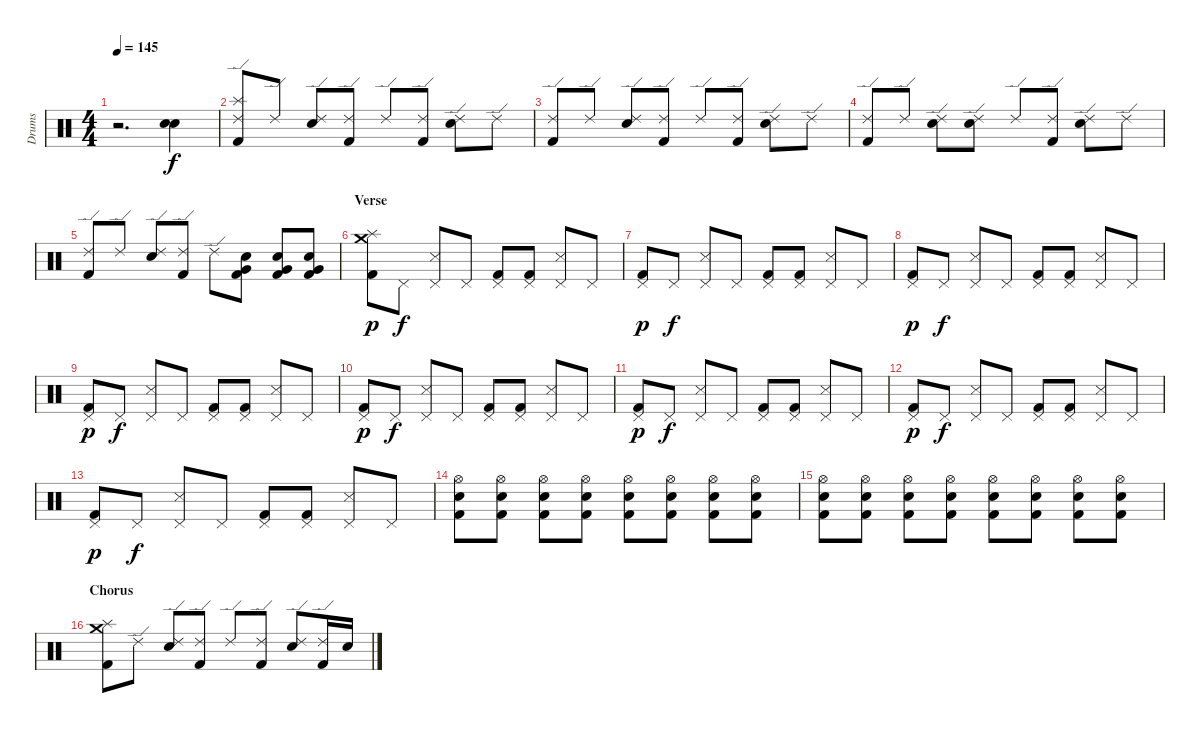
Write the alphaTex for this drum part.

\track ("Drums" "Drums") {instrument percussion}
\staff {score}
\articulation defaults
\ts (4 4)
\tempo 145
\clef neutral
\ks c
r.2{d dy f} ("Electric Snare (hit)" "Electric Snare (hit)").4{bu 240} |
("Ride (edge) 2" "Splash (hit)" "Kick (hit) 2").8 "Ride (edge) 2".8 ("Ride (edge) 2" "Electric Snare (hit)").8 ("Ride (edge) 2" "Kick (hit) 2").8 "Ride (edge) 2".8 ("Ride (edge) 2" "Kick (hit) 2").8 ("Ride (edge) 2" "Electric Snare (hit)").8 "Ride (edge) 2".8 |
("Ride (edge) 2" "Kick (hit) 2").8 "Ride (edge) 2".8 ("Ride (edge) 2" "Electric Snare (hit)").8 ("Ride (edge) 2" "Kick (hit) 2").8 "Ride (edge) 2".8 ("Ride (edge) 2" "Kick (hit) 2").8 ("Ride (edge) 2" "Electric Snare (hit)").8 "Ride (edge) 2".8 |
("Ride (edge) 2" "Kick (hit) 2").8 "Ride (edge) 2".8 ("Ride (edge) 2" "Electric Snare (hit)").8 ("Ride (edge) 2" "Electric Snare (hit)").8 "Ride (edge) 2".8 ("Ride (edge) 2" "Kick (hit) 2").8 ("Ride (edge) 2" "Electric Snare (hit)").8 "Ride (edge) 2".8 |
("Ride (edge) 2" "Kick (hit) 2").8 "Ride (edge) 2".8 ("Ride (edge) 2" "Electric Snare (hit)").8 ("Ride (edge) 2" "Kick (hit) 2").8 "Ride (edge) 2".8 ("Electric Snare (hit)" "Very Low Tom (hit)" "Kick (hit) 2").8 ("Electric Snare (hit)" "Very Low Tom (hit)" "Kick (hit) 2").8 ("Electric Snare (hit)" "Very Low Tom (hit)" "Kick (hit) 2").8 |
\section ("" "Verse ")
("Crash medium (hit)" "Splash (hit)" "Kick (hit) 2").8{dy p} "Pedal Hi-Hat (hit)".8{dy f} ("Pedal Hi-Hat (hit)" "Snare (side stick) 3").8 "Pedal Hi-Hat (hit)".8 ("Pedal Hi-Hat (hit)" "Kick (hit) 2").8 ("Pedal Hi-Hat (hit)" "Kick (hit) 2").8 ("Pedal Hi-Hat (hit)" "Snare (side stick) 3").8 "Pedal Hi-Hat (hit)".8 |
("Pedal Hi-Hat (hit)" "Kick (hit) 2").8{dy p} "Pedal Hi-Hat (hit)".8{dy f} ("Pedal Hi-Hat (hit)" "Snare (side stick) 3").8 "Pedal Hi-Hat (hit)".8 ("Pedal Hi-Hat (hit)" "Kick (hit) 2").8 ("Pedal Hi-Hat (hit)" "Kick (hit) 2").8 ("Pedal Hi-Hat (hit)" "Snare (side stick) 3").8 "Pedal Hi-Hat (hit)".8 |
("Pedal Hi-Hat (hit)" "Kick (hit) 2").8{dy p} "Pedal Hi-Hat (hit)".8{dy f} ("Pedal Hi-Hat (hit)" "Snare (side stick) 3").8 "Pedal Hi-Hat (hit)".8 ("Pedal Hi-Hat (hit)" "Kick (hit) 2").8 ("Pedal Hi-Hat (hit)" "Kick (hit) 2").8 ("Pedal Hi-Hat (hit)" "Snare (side stick) 3").8 "Pedal Hi-Hat (hit)".8 |
("Pedal Hi-Hat (hit)" "Kick (hit) 2").8{dy p} "Pedal Hi-Hat (hit)".8{dy f} ("Pedal Hi-Hat (hit)" "Snare (side stick) 3").8 "Pedal Hi-Hat (hit)".8 ("Pedal Hi-Hat (hit)" "Kick (hit) 2").8 ("Pedal Hi-Hat (hit)" "Kick (hit) 2").8 ("Pedal Hi-Hat (hit)" "Snare (side stick) 3").8 "Pedal Hi-Hat (hit)".8 |
("Pedal Hi-Hat (hit)" "Kick (hit) 2").8{dy p} "Pedal Hi-Hat (hit)".8{dy f} ("Pedal Hi-Hat (hit)" "Snare (side stick) 3").8 "Pedal Hi-Hat (hit)".8 ("Pedal Hi-Hat (hit)" "Kick (hit) 2").8 ("Pedal Hi-Hat (hit)" "Kick (hit) 2").8 ("Pedal Hi-Hat (hit)" "Snare (side stick) 3").8 "Pedal Hi-Hat (hit)".8 |
("Pedal Hi-Hat (hit)" "Kick (hit) 2").8{dy p} "Pedal Hi-Hat (hit)".8{dy f} ("Pedal Hi-Hat (hit)" "Snare (side stick) 3").8 "Pedal Hi-Hat (hit)".8 ("Pedal Hi-Hat (hit)" "Kick (hit) 2").8 ("Pedal Hi-Hat (hit)" "Kick (hit) 2").8 ("Pedal Hi-Hat (hit)" "Snare (side stick) 3").8 "Pedal Hi-Hat (hit)".8 |
("Pedal Hi-Hat (hit)" "Kick (hit) 2").8{dy p} "Pedal Hi-Hat (hit)".8{dy f} ("Pedal Hi-Hat (hit)" "Snare (side stick) 3").8 "Pedal Hi-Hat (hit)".8 ("Pedal Hi-Hat (hit)" "Kick (hit) 2").8 ("Pedal Hi-Hat (hit)" "Kick (hit) 2").8 ("Pedal Hi-Hat (hit)" "Snare (side stick) 3").8 "Pedal Hi-Hat (hit)".8 |
("Pedal Hi-Hat (hit)" "Kick (hit) 2").8{dy p} "Pedal Hi-Hat (hit)".8{dy f} ("Pedal Hi-Hat (hit)" "Snare (side stick) 3").8 "Pedal Hi-Hat (hit)".8 ("Pedal Hi-Hat (hit)" "Kick (hit) 2").8 ("Pedal Hi-Hat (hit)" "Kick (hit) 2").8 ("Pedal Hi-Hat (hit)" "Snare (side stick) 3").8 "Pedal Hi-Hat (hit)".8 |
("Hi-Hat (open)" "Electric Snare (hit)" "Kick (hit) 2").8{volume 6} ("Hi-Hat (open)" "Electric Snare (hit)" "Kick (hit) 2").8{volume 13} ("Hi-Hat (open)" "Electric Snare (hit)" "Kick (hit) 2").8 ("Hi-Hat (open)" "Electric Snare (hit)" "Kick (hit) 2").8 ("Hi-Hat (open)" "Electric Snare (hit)" "Kick (hit) 2").8 ("Hi-Hat (open)" "Electric Snare (hit)" "Kick (hit) 2").8 ("Hi-Hat (open)" "Electric Snare (hit)" "Kick (hit) 2").8 ("Hi-Hat (open)" "Electric Snare (hit)" "Kick (hit) 2").8 |
("Hi-Hat (open)" "Electric Snare (hit)" "Kick (hit) 2").8 ("Hi-Hat (open)" "Electric Snare (hit)" "Kick (hit) 2").8 ("Hi-Hat (open)" "Electric Snare (hit)" "Kick (hit) 2").8 ("Hi-Hat (open)" "Electric Snare (hit)" "Kick (hit) 2").8 ("Hi-Hat (open)" "Electric Snare (hit)" "Kick (hit) 2").8 ("Hi-Hat (open)" "Electric Snare (hit)" "Kick (hit) 2").8 ("Hi-Hat (open)" "Electric Snare (hit)" "Kick (hit) 2").8 ("Hi-Hat (open)" "Electric Snare (hit)" "Kick (hit) 2").8 |
\section ("" "Chorus")
("Crash medium (hit)" "Splash (hit)" "Kick (hit) 2").8 "Ride (edge) 2".8 ("Ride (edge) 2" "Electric Snare (hit)").8 ("Ride (edge) 2" "Kick (hit) 2").8 "Ride (edge) 2".8 ("Ride (edge) 2" "Kick (hit) 2").8 ("Ride (edge) 2" "Electric Snare (hit)").8 ("Ride (edge) 2" "Kick (hit) 2").16 "Electric Snare (hit)".16
